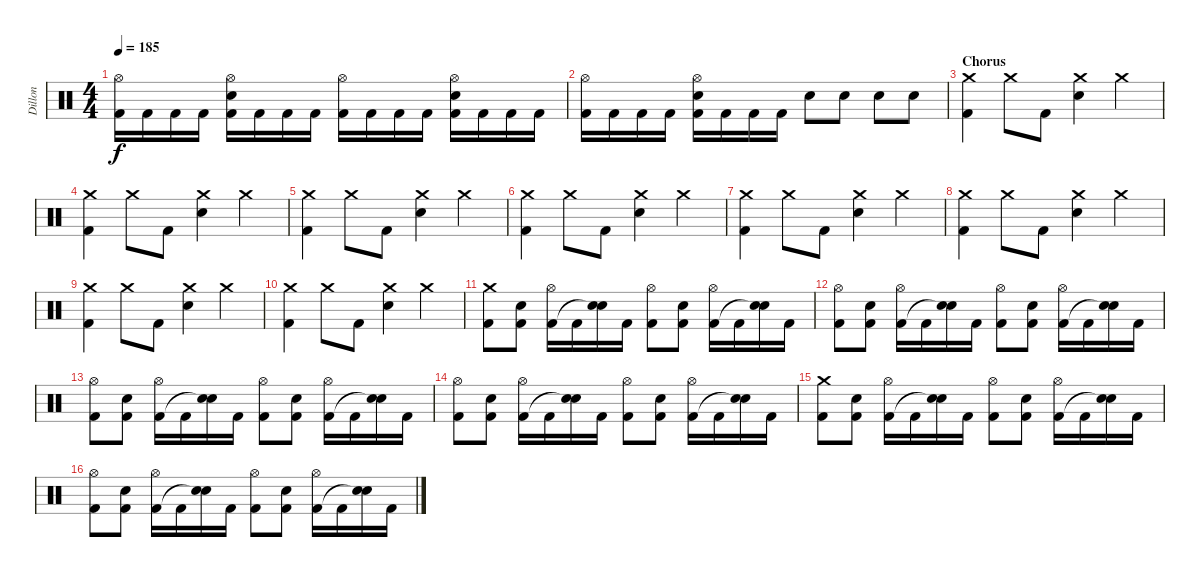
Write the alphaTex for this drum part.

\track ("Dillon" "Dillon") {instrument percussion}
\staff {score}
\articulation defaults
\ts (4 4)
\tempo 185
\clef neutral
\ks c
("Hi-Hat (open)" "Kick (hit) 2").16{dy f} "Kick (hit) 2".16 "Kick (hit) 2".16 "Kick (hit) 2".16 ("Hi-Hat (open)" "Electric Snare (hit)" "Kick (hit) 2").16 "Kick (hit) 2".16 "Kick (hit) 2".16 "Kick (hit) 2".16 ("Hi-Hat (open)" "Kick (hit) 2").16 "Kick (hit) 2".16 "Kick (hit) 2".16 "Kick (hit) 2".16 ("Hi-Hat (open)" "Electric Snare (hit)" "Kick (hit) 2").16 "Kick (hit) 2".16 "Kick (hit) 2".16 "Kick (hit) 2".16 |
("Hi-Hat (open)" "Kick (hit) 2").16 "Kick (hit) 2".16 "Kick (hit) 2".16 "Kick (hit) 2".16 ("Hi-Hat (open)" "Electric Snare (hit)" "Kick (hit) 2").16 "Kick (hit) 2".16 "Kick (hit) 2".16 "Kick (hit) 2".16 "Electric Snare (hit)".8 "Electric Snare (hit)".8 "Electric Snare (hit)".8 "Electric Snare (hit)".8 |
\section ("" "Chorus")
("Crash medium (hit)" "Kick (hit) 2").4 "Crash medium (hit)".8 "Kick (hit) 2".8 ("Crash medium (hit)" "Electric Snare (hit)").4 "Crash medium (hit)".4 |
("Crash medium (hit)" "Kick (hit) 2").4 "Crash medium (hit)".8 "Kick (hit) 2".8 ("Crash medium (hit)" "Electric Snare (hit)").4 "Crash medium (hit)".4 |
("Crash medium (hit)" "Kick (hit) 2").4 "Crash medium (hit)".8 "Kick (hit) 2".8 ("Crash medium (hit)" "Electric Snare (hit)").4 "Crash medium (hit)".4 |
("Crash medium (hit)" "Kick (hit) 2").4 "Crash medium (hit)".8 "Kick (hit) 2".8 ("Crash medium (hit)" "Electric Snare (hit)").4 "Crash medium (hit)".4 |
("Crash medium (hit)" "Kick (hit) 2").4 "Crash medium (hit)".8 "Kick (hit) 2".8 ("Crash medium (hit)" "Electric Snare (hit)").4 "Crash medium (hit)".4 |
("Crash medium (hit)" "Kick (hit) 2").4 "Crash medium (hit)".8 "Kick (hit) 2".8 ("Crash medium (hit)" "Electric Snare (hit)").4 "Crash medium (hit)".4 |
("Crash medium (hit)" "Kick (hit) 2").4 "Crash medium (hit)".8 "Kick (hit) 2".8 ("Crash medium (hit)" "Electric Snare (hit)").4 "Crash medium (hit)".4 |
("Crash medium (hit)" "Kick (hit) 2").4 "Crash medium (hit)".8 "Kick (hit) 2".8 ("Crash medium (hit)" "Electric Snare (hit)").4 "Crash medium (hit)".4 |
("Crash medium (hit)" "Kick (hit) 2").8 ("Electric Snare (hit)" "Kick (hit) 2").8 ("Hi-Hat (open)" "Kick (hit) 2").16 "Kick (hit) 2".16 ("Electric Snare (hit)" "Snare (hit)"{t}).16 "Kick (hit) 2".16 ("Hi-Hat (open)" "Kick (hit) 2").8 ("Electric Snare (hit)" "Kick (hit) 2").8 ("Hi-Hat (open)" "Kick (hit) 2").16 "Kick (hit) 2".16 ("Electric Snare (hit)" "Snare (hit)"{t}).16 "Kick (hit) 2".16 |
("Hi-Hat (open)" "Kick (hit) 2").8 ("Electric Snare (hit)" "Kick (hit) 2").8 ("Hi-Hat (open)" "Kick (hit) 2").16 "Kick (hit) 2".16 ("Electric Snare (hit)" "Snare (hit)"{t}).16 "Kick (hit) 2".16 ("Hi-Hat (open)" "Kick (hit) 2").8 ("Electric Snare (hit)" "Kick (hit) 2").8 ("Hi-Hat (open)" "Kick (hit) 2").16 "Kick (hit) 2".16 ("Electric Snare (hit)" "Snare (hit)"{t}).16 "Kick (hit) 2".16 |
("Hi-Hat (open)" "Kick (hit) 2").8 ("Electric Snare (hit)" "Kick (hit) 2").8 ("Hi-Hat (open)" "Kick (hit) 2").16 "Kick (hit) 2".16 ("Electric Snare (hit)" "Snare (hit)"{t}).16 "Kick (hit) 2".16 ("Hi-Hat (open)" "Kick (hit) 2").8 ("Electric Snare (hit)" "Kick (hit) 2").8 ("Hi-Hat (open)" "Kick (hit) 2").16 "Kick (hit) 2".16 ("Electric Snare (hit)" "Snare (hit)"{t}).16 "Kick (hit) 2".16 |
("Hi-Hat (open)" "Kick (hit) 2").8 ("Electric Snare (hit)" "Kick (hit) 2").8 ("Hi-Hat (open)" "Kick (hit) 2").16 "Kick (hit) 2".16 ("Electric Snare (hit)" "Snare (hit)"{t}).16 "Kick (hit) 2".16 ("Hi-Hat (open)" "Kick (hit) 2").8 ("Electric Snare (hit)" "Kick (hit) 2").8 ("Hi-Hat (open)" "Kick (hit) 2").16 "Kick (hit) 2".16 ("Electric Snare (hit)" "Snare (hit)"{t}).16 "Kick (hit) 2".16 |
("Crash medium (hit)" "Kick (hit) 2").8 ("Electric Snare (hit)" "Kick (hit) 2").8 ("Hi-Hat (open)" "Kick (hit) 2").16 "Kick (hit) 2".16 ("Electric Snare (hit)" "Snare (hit)"{t}).16 "Kick (hit) 2".16 ("Hi-Hat (open)" "Kick (hit) 2").8 ("Electric Snare (hit)" "Kick (hit) 2").8 ("Hi-Hat (open)" "Kick (hit) 2").16 "Kick (hit) 2".16 ("Electric Snare (hit)" "Snare (hit)"{t}).16 "Kick (hit) 2".16 |
("Hi-Hat (open)" "Kick (hit) 2").8 ("Electric Snare (hit)" "Kick (hit) 2").8 ("Hi-Hat (open)" "Kick (hit) 2").16 "Kick (hit) 2".16 ("Electric Snare (hit)" "Snare (hit)"{t}).16 "Kick (hit) 2".16 ("Hi-Hat (open)" "Kick (hit) 2").8 ("Electric Snare (hit)" "Kick (hit) 2").8 ("Hi-Hat (open)" "Kick (hit) 2").16 "Kick (hit) 2".16 ("Electric Snare (hit)" "Snare (hit)"{t}).16 "Kick (hit) 2".16
